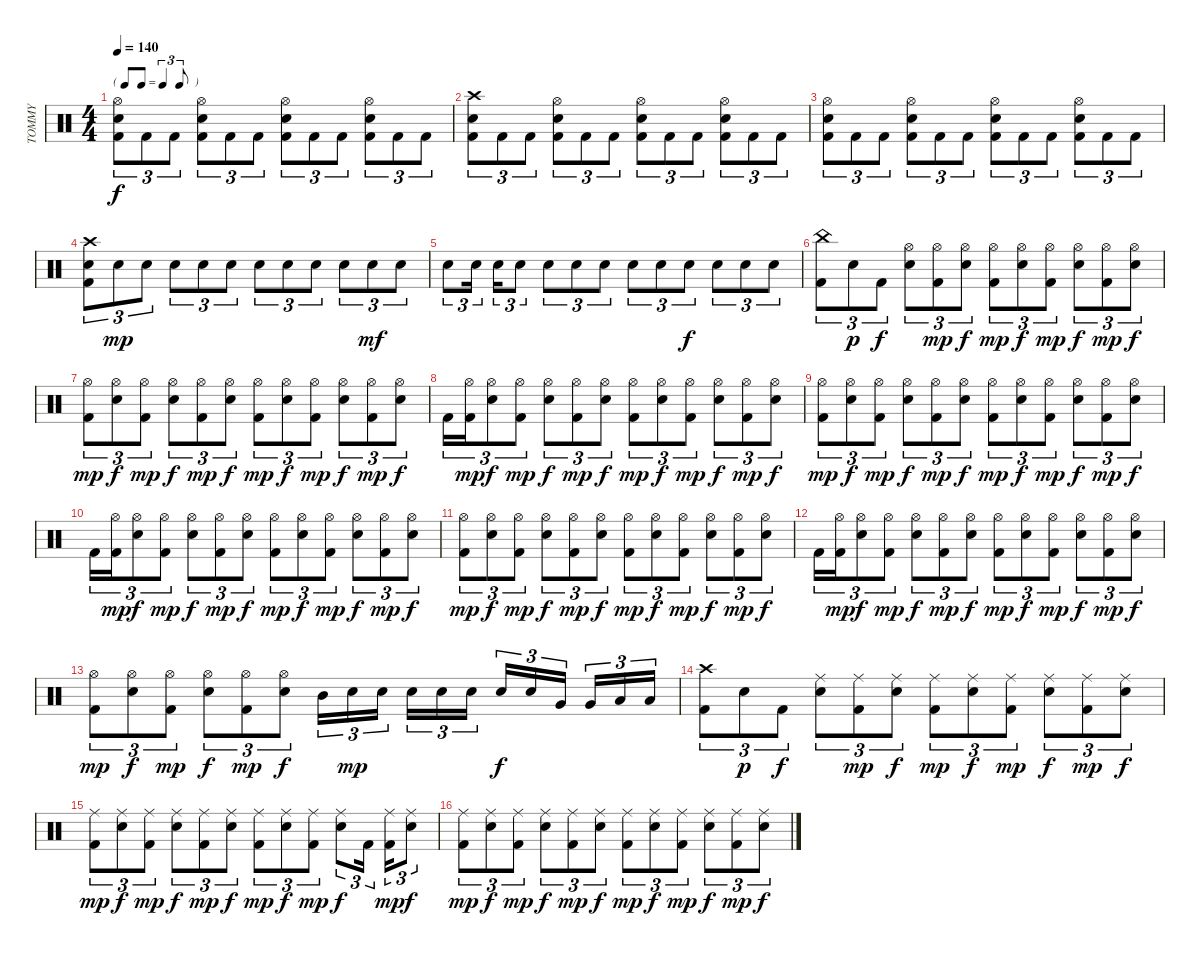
\track ("TOMMY" "TOMMY") {instrument percussion}
\staff {score}
\articulation defaults
\ts (4 4)
\tf triplet8th
\tempo 140
\clef neutral
\ks c
("Snare (hit) 2" "Kick (hit) 2" "Hi-Hat (open)").8{tu (3 2) dy f} "Kick (hit) 2".8{tu (3 2)} "Kick (hit) 2".8{tu (3 2)} ("Snare (hit) 2" "Kick (hit) 2" "Hi-Hat (open)").8{tu (3 2)} "Kick (hit) 2".8{tu (3 2)} "Kick (hit) 2".8{tu (3 2)} ("Snare (hit) 2" "Kick (hit) 2" "Hi-Hat (open)").8{tu (3 2)} "Kick (hit) 2".8{tu (3 2)} "Kick (hit) 2".8{tu (3 2)} ("Snare (hit) 2" "Kick (hit) 2" "Hi-Hat (open)").8{tu (3 2)} "Kick (hit) 2".8{tu (3 2)} "Kick (hit) 2".8{tu (3 2)} |
("Snare (hit) 2" "Kick (hit) 2" "Crash high (hit)").8{tu (3 2)} "Kick (hit) 2".8{tu (3 2)} "Kick (hit) 2".8{tu (3 2)} ("Snare (hit) 2" "Kick (hit) 2" "Hi-Hat (open)").8{tu (3 2)} "Kick (hit) 2".8{tu (3 2)} "Kick (hit) 2".8{tu (3 2)} ("Snare (hit) 2" "Kick (hit) 2" "Hi-Hat (open)").8{tu (3 2)} "Kick (hit) 2".8{tu (3 2)} "Kick (hit) 2".8{tu (3 2)} ("Snare (hit) 2" "Kick (hit) 2" "Hi-Hat (open)").8{tu (3 2)} "Kick (hit) 2".8{tu (3 2)} "Kick (hit) 2".8{tu (3 2)} |
("Snare (hit) 2" "Kick (hit) 2" "Hi-Hat (open)").8{tu (3 2)} "Kick (hit) 2".8{tu (3 2)} "Kick (hit) 2".8{tu (3 2)} ("Snare (hit) 2" "Kick (hit) 2" "Hi-Hat (open)").8{tu (3 2)} "Kick (hit) 2".8{tu (3 2)} "Kick (hit) 2".8{tu (3 2)} ("Snare (hit) 2" "Kick (hit) 2" "Hi-Hat (open)").8{tu (3 2)} "Kick (hit) 2".8{tu (3 2)} "Kick (hit) 2".8{tu (3 2)} ("Snare (hit) 2" "Kick (hit) 2" "Hi-Hat (open)").8{tu (3 2)} "Kick (hit) 2".8{tu (3 2)} "Kick (hit) 2".8{tu (3 2)} |
("Snare (hit) 2" "Kick (hit) 2" "Crash high (hit)").8{tu (3 2)} "Snare (hit) 2".8{tu (3 2) dy mp} "Snare (hit) 2".8{tu (3 2)} "Snare (hit) 2".8{tu (3 2)} "Snare (hit) 2".8{tu (3 2)} "Snare (hit) 2".8{tu (3 2)} "Snare (hit) 2".8{tu (3 2)} "Snare (hit) 2".8{tu (3 2)} "Snare (hit) 2".8{tu (3 2)} "Snare (hit) 2".8{tu (3 2)} "Snare (hit) 2".8{tu (3 2) dy mf} "Snare (hit) 2".8{tu (3 2)} |
"Snare (hit) 2".8{tu (3 2)} "Snare (hit) 2".16{tu (3 2)} "Snare (hit) 2".16{tu (3 2)} "Snare (hit) 2".8{tu (3 2)} "Snare (hit) 2".8{tu (3 2)} "Snare (hit) 2".8{tu (3 2)} "Snare (hit) 2".8{tu (3 2)} "Snare (hit) 2".8{tu (3 2)} "Snare (hit) 2".8{tu (3 2)} "Snare (hit) 2".8{tu (3 2) dy f} "Snare (hit) 2".8{tu (3 2)} "Snare (hit) 2".8{tu (3 2)} "Snare (hit) 2".8{tu (3 2)} |
("Kick (hit) 2" "China (hit)").8{tu (3 2)} "Snare (hit) 2".8{tu (3 2) dy p} "Kick (hit) 2".8{tu (3 2) dy f} ("Snare (hit) 2" "Hi-Hat (open)").8{tu (3 2)} ("Kick (hit) 2" "Hi-Hat (open)").8{tu (3 2) dy mp} ("Snare (hit) 2" "Hi-Hat (open)").8{tu (3 2) dy f} ("Kick (hit) 2" "Hi-Hat (open)").8{tu (3 2) dy mp} ("Snare (hit) 2" "Hi-Hat (open)").8{tu (3 2) dy f} ("Kick (hit) 2" "Hi-Hat (open)").8{tu (3 2) dy mp} ("Snare (hit) 2" "Hi-Hat (open)").8{tu (3 2) dy f} ("Kick (hit) 2" "Hi-Hat (open)").8{tu (3 2) dy mp} ("Snare (hit) 2" "Hi-Hat (open)").8{tu (3 2) dy f} |
("Kick (hit) 2" "Hi-Hat (open)").8{tu (3 2) dy mp} ("Snare (hit) 2" "Hi-Hat (open)").8{tu (3 2) dy f} ("Kick (hit) 2" "Hi-Hat (open)").8{tu (3 2) dy mp} ("Snare (hit) 2" "Hi-Hat (open)").8{tu (3 2) dy f} ("Kick (hit) 2" "Hi-Hat (open)").8{tu (3 2) dy mp} ("Snare (hit) 2" "Hi-Hat (open)").8{tu (3 2) dy f} ("Kick (hit) 2" "Hi-Hat (open)").8{tu (3 2) dy mp} ("Snare (hit) 2" "Hi-Hat (open)").8{tu (3 2) dy f} ("Kick (hit) 2" "Hi-Hat (open)").8{tu (3 2) dy mp} ("Snare (hit) 2" "Hi-Hat (open)").8{tu (3 2) dy f} ("Kick (hit) 2" "Hi-Hat (open)").8{tu (3 2) dy mp} ("Snare (hit) 2" "Hi-Hat (open)").8{tu (3 2) dy f} |
"Kick (hit) 2".16{tu (3 2)} ("Kick (hit) 2" "Hi-Hat (open)").16{tu (3 2) dy mp} ("Snare (hit) 2" "Hi-Hat (open)").8{tu (3 2) dy f} ("Kick (hit) 2" "Hi-Hat (open)").8{tu (3 2) dy mp} ("Snare (hit) 2" "Hi-Hat (open)").8{tu (3 2) dy f} ("Kick (hit) 2" "Hi-Hat (open)").8{tu (3 2) dy mp} ("Snare (hit) 2" "Hi-Hat (open)").8{tu (3 2) dy f} ("Kick (hit) 2" "Hi-Hat (open)").8{tu (3 2) dy mp} ("Snare (hit) 2" "Hi-Hat (open)").8{tu (3 2) dy f} ("Kick (hit) 2" "Hi-Hat (open)").8{tu (3 2) dy mp} ("Snare (hit) 2" "Hi-Hat (open)").8{tu (3 2) dy f} ("Kick (hit) 2" "Hi-Hat (open)").8{tu (3 2) dy mp} ("Snare (hit) 2" "Hi-Hat (open)").8{tu (3 2) dy f} |
("Kick (hit) 2" "Hi-Hat (open)").8{tu (3 2) dy mp} ("Snare (hit) 2" "Hi-Hat (open)").8{tu (3 2) dy f} ("Kick (hit) 2" "Hi-Hat (open)").8{tu (3 2) dy mp} ("Snare (hit) 2" "Hi-Hat (open)").8{tu (3 2) dy f} ("Kick (hit) 2" "Hi-Hat (open)").8{tu (3 2) dy mp} ("Snare (hit) 2" "Hi-Hat (open)").8{tu (3 2) dy f} ("Kick (hit) 2" "Hi-Hat (open)").8{tu (3 2) dy mp} ("Snare (hit) 2" "Hi-Hat (open)").8{tu (3 2) dy f} ("Kick (hit) 2" "Hi-Hat (open)").8{tu (3 2) dy mp} ("Snare (hit) 2" "Hi-Hat (open)").8{tu (3 2) dy f} ("Kick (hit) 2" "Hi-Hat (open)").8{tu (3 2) dy mp} ("Snare (hit) 2" "Hi-Hat (open)").8{tu (3 2) dy f} |
"Kick (hit) 2".16{tu (3 2)} ("Kick (hit) 2" "Hi-Hat (open)").16{tu (3 2) dy mp} ("Snare (hit) 2" "Hi-Hat (open)").8{tu (3 2) dy f} ("Kick (hit) 2" "Hi-Hat (open)").8{tu (3 2) dy mp} ("Snare (hit) 2" "Hi-Hat (open)").8{tu (3 2) dy f} ("Kick (hit) 2" "Hi-Hat (open)").8{tu (3 2) dy mp} ("Snare (hit) 2" "Hi-Hat (open)").8{tu (3 2) dy f} ("Kick (hit) 2" "Hi-Hat (open)").8{tu (3 2) dy mp} ("Snare (hit) 2" "Hi-Hat (open)").8{tu (3 2) dy f} ("Kick (hit) 2" "Hi-Hat (open)").8{tu (3 2) dy mp} ("Snare (hit) 2" "Hi-Hat (open)").8{tu (3 2) dy f} ("Kick (hit) 2" "Hi-Hat (open)").8{tu (3 2) dy mp} ("Snare (hit) 2" "Hi-Hat (open)").8{tu (3 2) dy f} |
("Kick (hit) 2" "Hi-Hat (open)").8{tu (3 2) dy mp} ("Snare (hit) 2" "Hi-Hat (open)").8{tu (3 2) dy f} ("Kick (hit) 2" "Hi-Hat (open)").8{tu (3 2) dy mp} ("Snare (hit) 2" "Hi-Hat (open)").8{tu (3 2) dy f} ("Kick (hit) 2" "Hi-Hat (open)").8{tu (3 2) dy mp} ("Snare (hit) 2" "Hi-Hat (open)").8{tu (3 2) dy f} ("Kick (hit) 2" "Hi-Hat (open)").8{tu (3 2) dy mp} ("Snare (hit) 2" "Hi-Hat (open)").8{tu (3 2) dy f} ("Kick (hit) 2" "Hi-Hat (open)").8{tu (3 2) dy mp} ("Snare (hit) 2" "Hi-Hat (open)").8{tu (3 2) dy f} ("Kick (hit) 2" "Hi-Hat (open)").8{tu (3 2) dy mp} ("Snare (hit) 2" "Hi-Hat (open)").8{tu (3 2) dy f} |
"Kick (hit) 2".16{tu (3 2)} ("Kick (hit) 2" "Hi-Hat (open)").16{tu (3 2) dy mp} ("Snare (hit) 2" "Hi-Hat (open)").8{tu (3 2) dy f} ("Kick (hit) 2" "Hi-Hat (open)").8{tu (3 2) dy mp} ("Snare (hit) 2" "Hi-Hat (open)").8{tu (3 2) dy f} ("Kick (hit) 2" "Hi-Hat (open)").8{tu (3 2) dy mp} ("Snare (hit) 2" "Hi-Hat (open)").8{tu (3 2) dy f} ("Kick (hit) 2" "Hi-Hat (open)").8{tu (3 2) dy mp} ("Snare (hit) 2" "Hi-Hat (open)").8{tu (3 2) dy f} ("Kick (hit) 2" "Hi-Hat (open)").8{tu (3 2) dy mp} ("Snare (hit) 2" "Hi-Hat (open)").8{tu (3 2) dy f} ("Kick (hit) 2" "Hi-Hat (open)").8{tu (3 2) dy mp} ("Snare (hit) 2" "Hi-Hat (open)").8{tu (3 2) dy f} |
("Kick (hit) 2" "Hi-Hat (open)").8{tu (3 2) dy mp} ("Snare (hit) 2" "Hi-Hat (open)").8{tu (3 2) dy f} ("Kick (hit) 2" "Hi-Hat (open)").8{tu (3 2) dy mp} ("Snare (hit) 2" "Hi-Hat (open)").8{tu (3 2) dy f} ("Kick (hit) 2" "Hi-Hat (open)").8{tu (3 2) dy mp} ("Snare (hit) 2" "Hi-Hat (open)").8{tu (3 2) dy f} "Mid Tom (hit)".16{tu (3 2)} "Snare (hit) 2".16{tu (3 2) dy mp} "Snare (hit) 2".16{tu (3 2)} "Snare (hit) 2".16{tu (3 2)} "Snare (hit) 2".16{tu (3 2)} "Snare (hit) 2".16{tu (3 2)} "Snare (hit) 2".16{tu (3 2) dy f} "Snare (hit) 2".16{tu (3 2)} "Very Low Tom (hit)".16{tu (3 2)} "Very Low Tom (hit)".16{tu (3 2)} "Low Floor Tom (hit)".16{tu (3 2)} "Low Floor Tom (hit)".16{tu (3 2)} |
("Kick (hit) 2" "Crash high (hit)").8{tu (3 2)} "Snare (hit) 2".8{tu (3 2) dy p} "Kick (hit) 2".8{tu (3 2) dy f} ("Snare (hit) 2" "Ride (middle)").8{tu (3 2)} ("Kick (hit) 2" "Ride (middle)").8{tu (3 2) dy mp} ("Snare (hit) 2" "Ride (middle)").8{tu (3 2) dy f} ("Kick (hit) 2" "Ride (middle)").8{tu (3 2) dy mp} ("Snare (hit) 2" "Ride (middle)").8{tu (3 2) dy f} ("Kick (hit) 2" "Ride (middle)").8{tu (3 2) dy mp} ("Snare (hit) 2" "Ride (middle)").8{tu (3 2) dy f} ("Kick (hit) 2" "Ride (middle)").8{tu (3 2) dy mp} ("Snare (hit) 2" "Ride (middle)").8{tu (3 2) dy f} |
("Kick (hit) 2" "Ride (middle)").8{tu (3 2) dy mp} ("Snare (hit) 2" "Ride (middle)").8{tu (3 2) dy f} ("Kick (hit) 2" "Ride (middle)").8{tu (3 2) dy mp} ("Snare (hit) 2" "Ride (middle)").8{tu (3 2) dy f} ("Kick (hit) 2" "Ride (middle)").8{tu (3 2) dy mp} ("Snare (hit) 2" "Ride (middle)").8{tu (3 2) dy f} ("Kick (hit) 2" "Ride (middle)").8{tu (3 2) dy mp} ("Snare (hit) 2" "Ride (middle)").8{tu (3 2) dy f} ("Kick (hit) 2" "Ride (middle)").8{tu (3 2) dy mp} ("Snare (hit) 2" "Ride (middle)").8{tu (3 2) dy f} "Kick (hit) 2".16{tu (3 2)} ("Kick (hit) 2" "Ride (middle)").16{tu (3 2) dy mp} ("Snare (hit) 2" "Ride (middle)").8{tu (3 2) dy f} |
("Kick (hit) 2" "Ride (middle)").8{tu (3 2) dy mp} ("Snare (hit) 2" "Ride (middle)").8{tu (3 2) dy f} ("Kick (hit) 2" "Ride (middle)").8{tu (3 2) dy mp} ("Snare (hit) 2" "Ride (middle)").8{tu (3 2) dy f} ("Kick (hit) 2" "Ride (middle)").8{tu (3 2) dy mp} ("Snare (hit) 2" "Ride (middle)").8{tu (3 2) dy f} ("Kick (hit) 2" "Ride (middle)").8{tu (3 2) dy mp} ("Snare (hit) 2" "Ride (middle)").8{tu (3 2) dy f} ("Kick (hit) 2" "Ride (middle)").8{tu (3 2) dy mp} ("Snare (hit) 2" "Ride (middle)").8{tu (3 2) dy f} ("Kick (hit) 2" "Ride (middle)").8{tu (3 2) dy mp} ("Snare (hit) 2" "Ride (middle)").8{tu (3 2) dy f}
